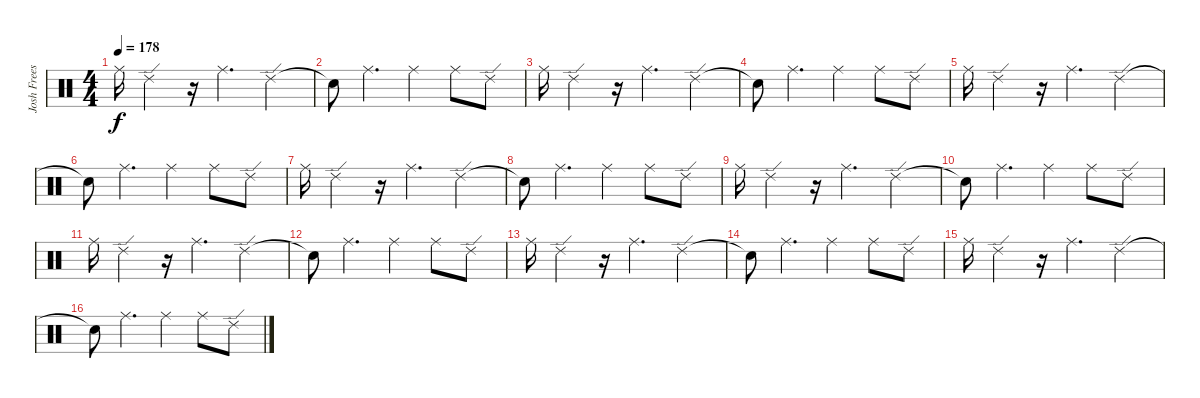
\track ("Josh Freese" "Josh Frees") {instrument percussion}
\staff {score}
\articulation defaults
\ts (4 4)
\tempo 178
\clef neutral
\ks c "Ride (middle)".16{dy f} "Ride (edge) 2".4
r.16 "Ride (middle)".4{d} "Ride (edge) 2".4 |
"Snare (hit)"{t}.8 "Ride (middle)".4{d} "Ride (middle)".4 "Ride (middle)".8 "Ride (edge) 2".8 |
"Ride (middle)".16 "Ride (edge) 2".4 r.16 "Ride (middle)".4{d} "Ride (edge) 2".4 |
"Snare (hit)"{t}.8 "Ride (middle)".4{d} "Ride (middle)".4 "Ride (middle)".8 "Ride (edge) 2".8 |
"Ride (middle)".16 "Ride (edge) 2".4 r.16 "Ride (middle)".4{d} "Ride (edge) 2".4 |
"Snare (hit)"{t}.8 "Ride (middle)".4{d} "Ride (middle)".4 "Ride (middle)".8 "Ride (edge) 2".8 |
"Ride (middle)".16 "Ride (edge) 2".4 r.16 "Ride (middle)".4{d} "Ride (edge) 2".4 |
"Snare (hit)"{t}.8 "Ride (middle)".4{d} "Ride (middle)".4 "Ride (middle)".8 "Ride (edge) 2".8 |
"Ride (middle)".16 "Ride (edge) 2".4 r.16 "Ride (middle)".4{d} "Ride (edge) 2".4 |
"Snare (hit)"{t}.8 "Ride (middle)".4{d} "Ride (middle)".4 "Ride (middle)".8 "Ride (edge) 2".8 |
"Ride (middle)".16 "Ride (edge) 2".4 r.16 "Ride (middle)".4{d} "Ride (edge) 2".4 |
"Snare (hit)"{t}.8 "Ride (middle)".4{d} "Ride (middle)".4 "Ride (middle)".8 "Ride (edge) 2".8 |
"Ride (middle)".16 "Ride (edge) 2".4 r.16 "Ride (middle)".4{d} "Ride (edge) 2".4 |
"Snare (hit)"{t}.8 "Ride (middle)".4{d} "Ride (middle)".4 "Ride (middle)".8 "Ride (edge) 2".8 |
"Ride (middle)".16 "Ride (edge) 2".4 r.16 "Ride (middle)".4{d} "Ride (edge) 2".4 |
"Snare (hit)"{t}.8 "Ride (middle)".4{d} "Ride (middle)".4 "Ride (middle)".8 "Ride (edge) 2".8
